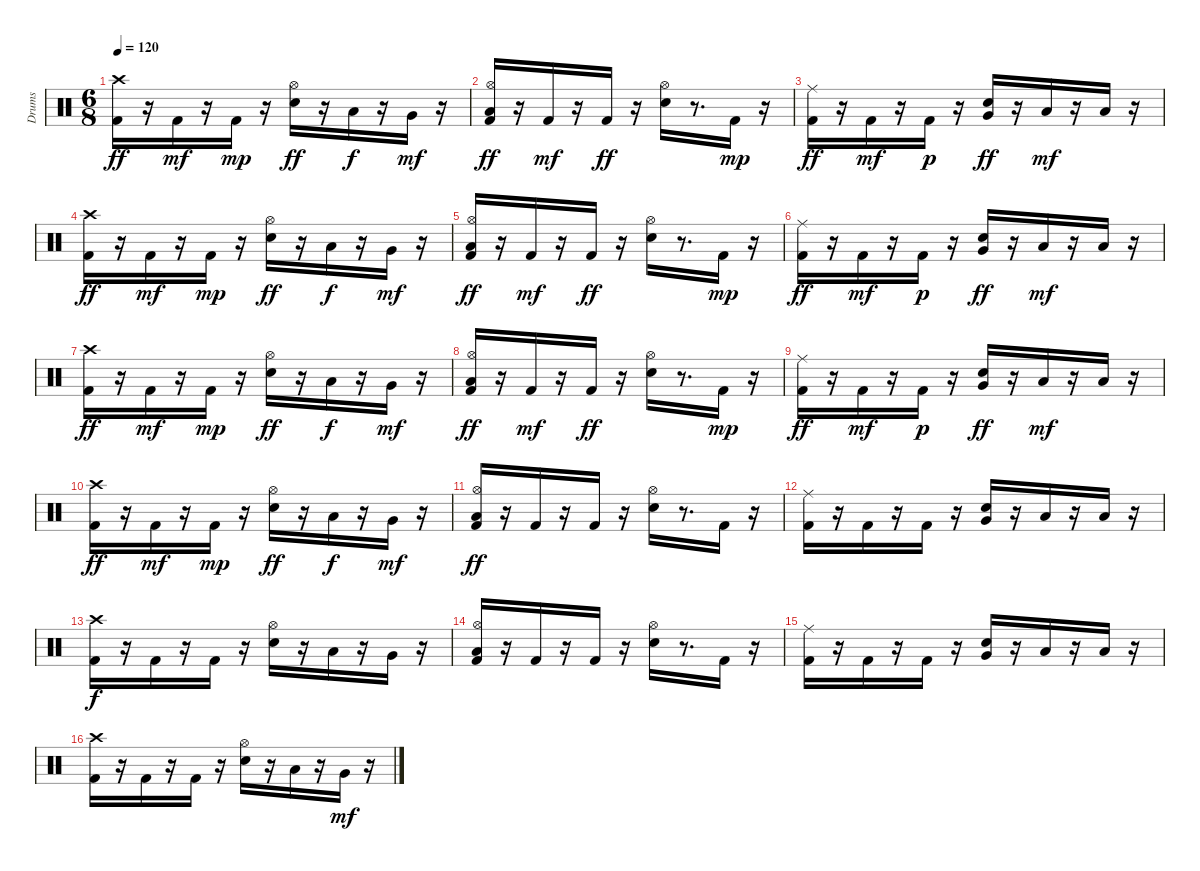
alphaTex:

\track ("Drums" "Drums") {instrument percussion}
\staff {score}
\articulation defaults
\ts (6 8)
\tempo 120
\clef neutral
\ks c
("Crash high (hit)" "Kick (hit) 2").16{dy ff} r.16 "Kick (hit) 2".16{dy mf} r.16 "Kick (hit) 2".16{dy mp} r.16 ("Hi-Hat (open)" "Snare (hit) 2").16{dy ff} r.16 "Low Tom (hit)".16{dy f} r.16 "Very Low Tom (hit)".16{dy mf} r.16 |
("Hi-Hat (open)" "Low Floor Tom (hit)" "Kick (hit) 2").16{dy ff} r.16 "Kick (hit) 2".16{dy mf} r.16 "Kick (hit) 2".16{dy ff} r.16 ("Hi-Hat (open)" "Snare (hit) 2").16 r.8{d} "Kick (hit) 2".16{dy mp} r.16 |
("Ride (middle)" "Kick (hit) 2").16{dy ff} r.16 "Kick (hit) 2".16{dy mf} r.16 "Kick (hit) 2".16{dy p} r.16 ("Very Low Tom (hit)" "Snare (hit) 2").16{dy ff} r.16 "Low Floor Tom (hit)".16{dy mf} r.16 "Low Floor Tom (hit)".16 r.16 |
("Crash high (hit)" "Kick (hit) 2").16{dy ff} r.16 "Kick (hit) 2".16{dy mf} r.16 "Kick (hit) 2".16{dy mp} r.16 ("Hi-Hat (open)" "Snare (hit) 2").16{dy ff} r.16 "Low Tom (hit)".16{dy f} r.16 "Very Low Tom (hit)".16{dy mf} r.16 |
("Hi-Hat (open)" "Low Floor Tom (hit)" "Kick (hit) 2").16{dy ff} r.16 "Kick (hit) 2".16{dy mf} r.16 "Kick (hit) 2".16{dy ff} r.16 ("Hi-Hat (open)" "Snare (hit) 2").16 r.8{d} "Kick (hit) 2".16{dy mp} r.16 |
("Ride (middle)" "Kick (hit) 2").16{dy ff} r.16 "Kick (hit) 2".16{dy mf} r.16 "Kick (hit) 2".16{dy p} r.16 ("Very Low Tom (hit)" "Snare (hit) 2").16{dy ff} r.16 "Low Floor Tom (hit)".16{dy mf} r.16 "Low Floor Tom (hit)".16 r.16 |
("Crash high (hit)" "Kick (hit) 2").16{dy ff} r.16 "Kick (hit) 2".16{dy mf} r.16 "Kick (hit) 2".16{dy mp} r.16 ("Hi-Hat (open)" "Snare (hit) 2").16{dy ff} r.16 "Low Tom (hit)".16{dy f} r.16 "Very Low Tom (hit)".16{dy mf} r.16 |
("Hi-Hat (open)" "Low Floor Tom (hit)" "Kick (hit) 2").16{dy ff} r.16 "Kick (hit) 2".16{dy mf} r.16 "Kick (hit) 2".16{dy ff} r.16 ("Hi-Hat (open)" "Snare (hit) 2").16 r.8{d} "Kick (hit) 2".16{dy mp} r.16 |
("Ride (middle)" "Kick (hit) 2").16{dy ff} r.16 "Kick (hit) 2".16{dy mf} r.16 "Kick (hit) 2".16{dy p} r.16 ("Very Low Tom (hit)" "Snare (hit) 2").16{dy ff} r.16 "Low Floor Tom (hit)".16{dy mf} r.16 "Low Floor Tom (hit)".16 r.16 |
("Crash high (hit)" "Kick (hit) 2").16{dy ff} r.16 "Kick (hit) 2".16{dy mf} r.16 "Kick (hit) 2".16{dy mp} r.16 ("Hi-Hat (open)" "Snare (hit) 2").16{dy ff} r.16 "Low Tom (hit)".16{dy f} r.16 "Very Low Tom (hit)".16{dy mf} r.16 |
("Hi-Hat (open)" "Low Floor Tom (hit)" "Kick (hit) 2").16{dy ff} r.16 "Kick (hit) 2".16 r.16 "Kick (hit) 2".16 r.16 ("Hi-Hat (open)" "Snare (hit) 2").16 r.8{d} "Kick (hit) 2".16 r.16 |
("Ride (middle)" "Kick (hit) 2").16 r.16 "Kick (hit) 2".16 r.16 "Kick (hit) 2".16 r.16 ("Very Low Tom (hit)" "Snare (hit) 2").16 r.16 "Low Floor Tom (hit)".16 r.16 "Low Floor Tom (hit)".16 r.16 |
("Crash high (hit)" "Kick (hit) 2").16{dy f} r.16 "Kick (hit) 2".16 r.16 "Kick (hit) 2".16 r.16 ("Hi-Hat (open)" "Snare (hit) 2").16 r.16 "Low Tom (hit)".16 r.16 "Very Low Tom (hit)".16 r.16 |
("Hi-Hat (open)" "Low Floor Tom (hit)" "Kick (hit) 2").16 r.16 "Kick (hit) 2".16 r.16 "Kick (hit) 2".16 r.16 ("Hi-Hat (open)" "Snare (hit) 2").16 r.8{d} "Kick (hit) 2".16 r.16 |
("Ride (middle)" "Kick (hit) 2").16 r.16 "Kick (hit) 2".16 r.16 "Kick (hit) 2".16 r.16 ("Very Low Tom (hit)" "Snare (hit) 2").16 r.16 "Low Floor Tom (hit)".16 r.16 "Low Floor Tom (hit)".16 r.16 |
("Crash high (hit)" "Kick (hit) 2").16 r.16 "Kick (hit) 2".16 r.16 "Kick (hit) 2".16 r.16 ("Hi-Hat (open)" "Snare (hit) 2").16 r.16 "Low Tom (hit)".16 r.16 "Very Low Tom (hit)".16{dy mf} r.16
